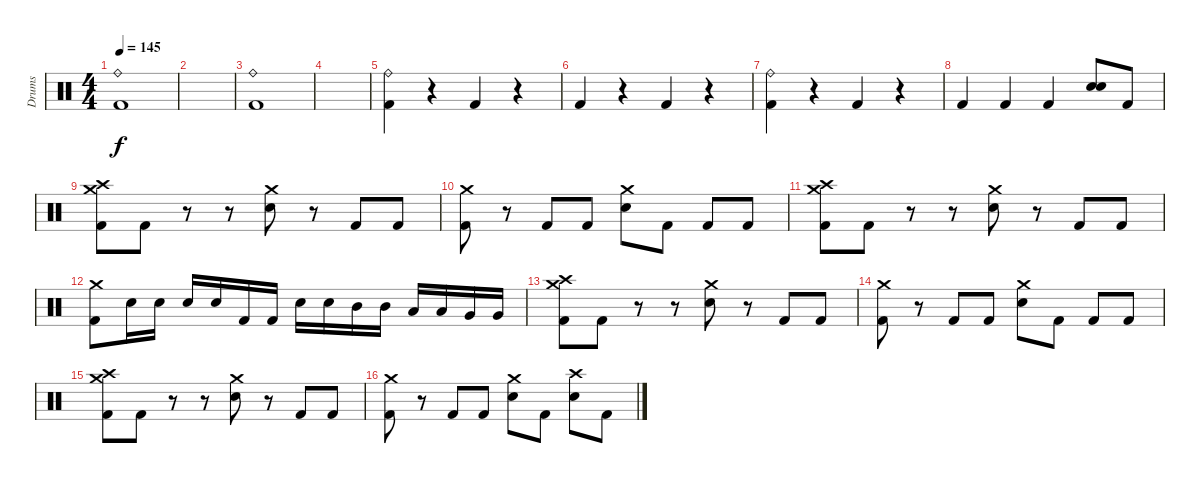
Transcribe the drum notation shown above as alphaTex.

\track ("Drums" "Drums") {instrument percussion}
\staff {score}
\articulation defaults
\ts (4 4)
\tempo 145
\clef neutral
\ks c
("Ride (bell)" "Kick (hit) 2").1{dy f} |
|
("Ride (bell)" "Kick (hit) 2").1 |
|
("Ride (bell)" "Kick (hit) 2").4 r.4 "Kick (hit) 2".4 r.4 |
"Kick (hit) 2".4 r.4 "Kick (hit) 2".4 r.4 |
("Ride (bell)" "Kick (hit) 2").4 r.4 "Kick (hit) 2".4 r.4 |
"Kick (hit) 2".4 "Kick (hit) 2".4 "Kick (hit) 2".4 ("Snare (hit) 2" "Snare (hit) 2").8 "Kick (hit) 2".8 |
("Crash high (hit)" "Crash medium (hit)" "Kick (hit) 2").8 "Kick (hit) 2".8 r.8 r.8 ("Crash medium (hit)" "Snare (hit) 2").8 r.8 "Kick (hit) 2".8 "Kick (hit) 2".8 |
("Crash medium (hit)" "Kick (hit) 2").8 r.8 "Kick (hit) 2".8 "Kick (hit) 2".8 ("Crash medium (hit)" "Snare (hit) 2").8 "Kick (hit) 2".8 "Kick (hit) 2".8 "Kick (hit) 2".8 |
("Crash high (hit)" "Crash medium (hit)" "Kick (hit) 2").8 "Kick (hit) 2".8 r.8 r.8 ("Crash medium (hit)" "Snare (hit) 2").8 r.8 "Kick (hit) 2".8 "Kick (hit) 2".8 |
("Crash medium (hit)" "Kick (hit) 2").8 "Snare (hit) 2".16 "Snare (hit) 2".16 "Snare (hit) 2".16 "Snare (hit) 2".16 "Kick (hit) 2".16 "Kick (hit) 2".16 "Snare (hit) 2".16 "Snare (hit) 2".16 "Mid Tom (hit)".16 "Mid Tom (hit)".16 "Low Tom (hit)".16 "Low Tom (hit)".16 "Very Low Tom (hit)".16 "Very Low Tom (hit)".16 |
("Crash high (hit)" "Crash medium (hit)" "Kick (hit) 2").8 "Kick (hit) 2".8 r.8 r.8 ("Crash medium (hit)" "Snare (hit) 2").8 r.8 "Kick (hit) 2".8 "Kick (hit) 2".8 |
("Crash medium (hit)" "Kick (hit) 2").8 r.8 "Kick (hit) 2".8 "Kick (hit) 2".8 ("Crash medium (hit)" "Snare (hit) 2").8 "Kick (hit) 2".8 "Kick (hit) 2".8 "Kick (hit) 2".8 |
("Crash high (hit)" "Crash medium (hit)" "Kick (hit) 2").8 "Kick (hit) 2".8 r.8 r.8 ("Crash medium (hit)" "Snare (hit) 2").8 r.8 "Kick (hit) 2".8 "Kick (hit) 2".8 |
("Crash medium (hit)" "Kick (hit) 2").8 r.8 "Kick (hit) 2".8 "Kick (hit) 2".8 ("Crash medium (hit)" "Snare (hit) 2").8 "Kick (hit) 2".8 ("Crash high (hit)" "Snare (hit) 2").8 "Kick (hit) 2".8
